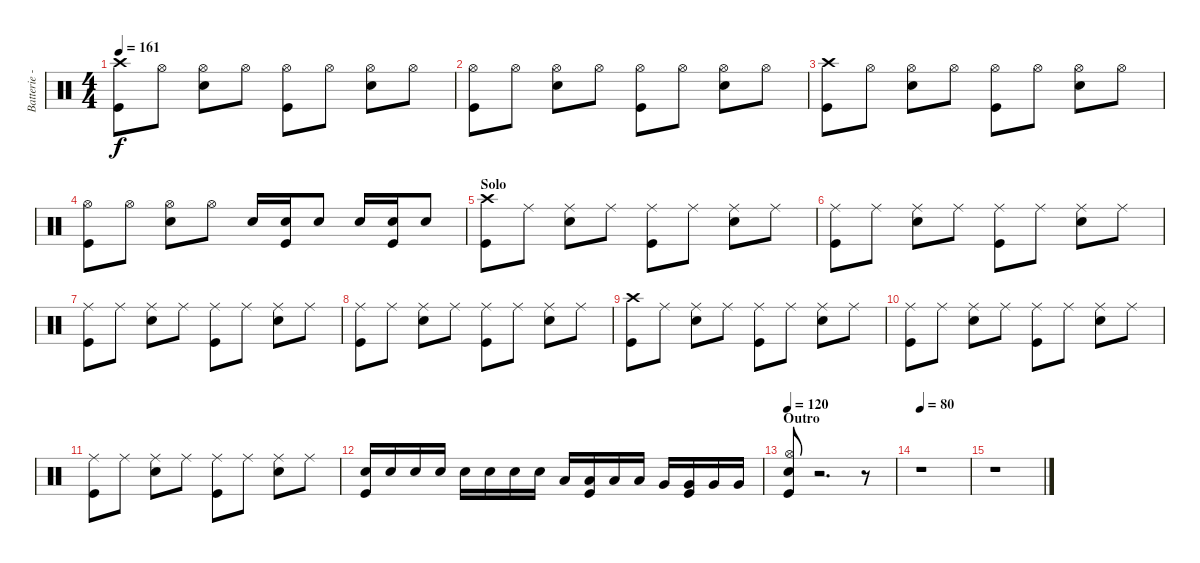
\track ("Batterie - Alex" "Batterie -") {instrument percussion}
\staff {score}
\articulation defaults
\ts (4 4)
\tempo 161
\clef neutral
\ks c
("Crash high (hit)" "Kick (hit)").8{dy f} "Hi-Hat (open)".8 ("Hi-Hat (open)" "Electric Snare (hit)").8 "Hi-Hat (open)".8 ("Hi-Hat (open)" "Kick (hit)").8 "Hi-Hat (open)".8 ("Hi-Hat (open)" "Electric Snare (hit)").8 "Hi-Hat (open)".8 |
("Hi-Hat (open)" "Kick (hit)").8 "Hi-Hat (open)".8 ("Hi-Hat (open)" "Electric Snare (hit)").8 "Hi-Hat (open)".8 ("Hi-Hat (open)" "Kick (hit)").8 "Hi-Hat (open)".8 ("Hi-Hat (open)" "Electric Snare (hit)").8 "Hi-Hat (open)".8 |
("Crash high (hit)" "Kick (hit)").8 "Hi-Hat (open)".8 ("Hi-Hat (open)" "Electric Snare (hit)").8 "Hi-Hat (open)".8 ("Hi-Hat (open)" "Kick (hit)").8 "Hi-Hat (open)".8 ("Hi-Hat (open)" "Electric Snare (hit)").8 "Hi-Hat (open)".8 |
("Hi-Hat (open)" "Kick (hit)").8 "Hi-Hat (open)".8 ("Hi-Hat (open)" "Electric Snare (hit)").8 "Hi-Hat (open)".8 "Electric Snare (hit)".16 ("Electric Snare (hit)" "Kick (hit)").16 "Electric Snare (hit)".8 "Electric Snare (hit)".16 ("Electric Snare (hit)" "Kick (hit)").16 "Electric Snare (hit)".8 |
\section ("" "Solo")
("Crash high (hit)" "Kick (hit)").8 "Ride (middle)".8 ("Ride (middle)" "Electric Snare (hit)").8 "Ride (middle)".8 ("Ride (middle)" "Kick (hit)").8 "Ride (middle)".8 ("Ride (middle)" "Electric Snare (hit)").8 "Ride (middle)".8 |
("Ride (middle)" "Kick (hit)").8 "Ride (middle)".8 ("Ride (middle)" "Electric Snare (hit)").8 "Ride (middle)".8 ("Ride (middle)" "Kick (hit)").8 "Ride (middle)".8 ("Ride (middle)" "Electric Snare (hit)").8 "Ride (middle)".8 |
("Ride (middle)" "Kick (hit)").8 "Ride (middle)".8 ("Ride (middle)" "Electric Snare (hit)").8 "Ride (middle)".8 ("Ride (middle)" "Kick (hit)").8 "Ride (middle)".8 ("Ride (middle)" "Electric Snare (hit)").8 "Ride (middle)".8 |
("Ride (middle)" "Kick (hit)").8 "Ride (middle)".8 ("Ride (middle)" "Electric Snare (hit)").8 "Ride (middle)".8 ("Ride (middle)" "Kick (hit)").8 "Ride (middle)".8 ("Ride (middle)" "Electric Snare (hit)").8 "Ride (middle)".8 |
("Crash high (hit)" "Kick (hit)").8 "Ride (middle)".8 ("Ride (middle)" "Electric Snare (hit)").8 "Ride (middle)".8 ("Ride (middle)" "Kick (hit)").8 "Ride (middle)".8 ("Ride (middle)" "Electric Snare (hit)").8 "Ride (middle)".8 |
("Ride (middle)" "Kick (hit)").8 "Ride (middle)".8 ("Ride (middle)" "Electric Snare (hit)").8 "Ride (middle)".8 ("Ride (middle)" "Kick (hit)").8 "Ride (middle)".8 ("Ride (middle)" "Electric Snare (hit)").8 "Ride (middle)".8 |
("Ride (middle)" "Kick (hit)").8 "Ride (middle)".8 ("Ride (middle)" "Electric Snare (hit)").8 "Ride (middle)".8 ("Ride (middle)" "Kick (hit)").8 "Ride (middle)".8 ("Ride (middle)" "Electric Snare (hit)").8 "Ride (middle)".8 |
("Electric Snare (hit)" "Kick (hit)").16 "Electric Snare (hit)".16 "Electric Snare (hit)".16 "Electric Snare (hit)".16 "Electric Snare (hit)".16 "Electric Snare (hit)".16 "Electric Snare (hit)".16 "Electric Snare (hit)".16 "Low Floor Tom (hit)".16 ("Low Floor Tom (hit)" "Kick (hit)").16 "Low Floor Tom (hit)".16 "Low Floor Tom (hit)".16 "Very Low Tom (hit)".16 ("Very Low Tom (hit)" "Kick (hit)").16 "Very Low Tom (hit)".16 "Very Low Tom (hit)".16 |
\section ("" "Outro")
\tempo 120
("Hi-Hat (open)" "Electric Snare (hit)" "Kick (hit)").8 r.2{d} r.8 |
\tempo 80
r.1 |
r.1
